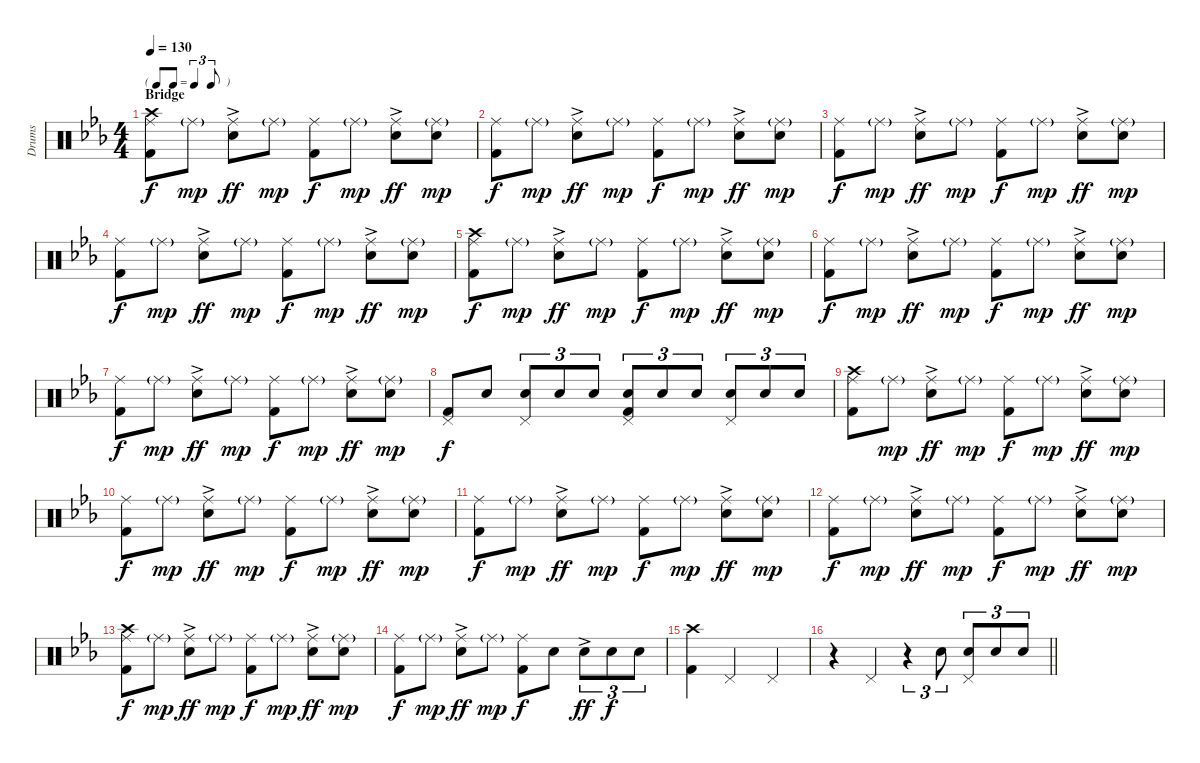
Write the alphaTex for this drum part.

\track ("Drums" "Drums") {instrument percussion}
\staff {score}
\articulation defaults
\ts (4 4)
\tf triplet8th
\section ("" "Bridge")
\tempo 130
\clef neutral
\ks eb
("Ride (middle)" "Kick (hit) 2" "Crash high (hit)").8{dy f} "Ride (middle)"{g}.8{dy mp} ("Ride (middle)" "Electric Snare (hit)"{ac}).8{dy ff} "Ride (middle)"{g}.8{dy mp} ("Ride (middle)" "Kick (hit) 2").8{dy f} "Ride (middle)"{g}.8{dy mp} ("Ride (middle)" "Electric Snare (hit)"{ac}).8{dy ff} ("Ride (middle)"{g} "Electric Snare (hit)").8{dy mp} |
("Ride (middle)" "Kick (hit) 2").8{dy f} "Ride (middle)"{g}.8{dy mp} ("Ride (middle)" "Electric Snare (hit)"{ac}).8{dy ff} "Ride (middle)"{g}.8{dy mp} ("Ride (middle)" "Kick (hit) 2").8{dy f} "Ride (middle)"{g}.8{dy mp} ("Ride (middle)" "Electric Snare (hit)"{ac}).8{dy ff} ("Ride (middle)"{g} "Electric Snare (hit)").8{dy mp} |
("Ride (middle)" "Kick (hit) 2").8{dy f} "Ride (middle)"{g}.8{dy mp} ("Ride (middle)" "Electric Snare (hit)"{ac}).8{dy ff} "Ride (middle)"{g}.8{dy mp} ("Ride (middle)" "Kick (hit) 2").8{dy f} "Ride (middle)"{g}.8{dy mp} ("Ride (middle)" "Electric Snare (hit)"{ac}).8{dy ff} ("Ride (middle)"{g} "Electric Snare (hit)").8{dy mp} |
("Ride (middle)" "Kick (hit) 2").8{dy f} "Ride (middle)"{g}.8{dy mp} ("Ride (middle)" "Electric Snare (hit)"{ac}).8{dy ff} "Ride (middle)"{g}.8{dy mp} ("Ride (middle)" "Kick (hit) 2").8{dy f} "Ride (middle)"{g}.8{dy mp} ("Ride (middle)" "Electric Snare (hit)"{ac}).8{dy ff} ("Ride (middle)"{g} "Electric Snare (hit)").8{dy mp} |
("Ride (middle)" "Kick (hit) 2" "Crash high (hit)").8{dy f} "Ride (middle)"{g}.8{dy mp} ("Ride (middle)" "Electric Snare (hit)"{ac}).8{dy ff} "Ride (middle)"{g}.8{dy mp} ("Ride (middle)" "Kick (hit) 2").8{dy f} "Ride (middle)"{g}.8{dy mp} ("Ride (middle)" "Electric Snare (hit)"{ac}).8{dy ff} ("Ride (middle)"{g} "Electric Snare (hit)").8{dy mp} |
("Ride (middle)" "Kick (hit) 2").8{dy f} "Ride (middle)"{g}.8{dy mp} ("Ride (middle)" "Electric Snare (hit)"{ac}).8{dy ff} "Ride (middle)"{g}.8{dy mp} ("Ride (middle)" "Kick (hit) 2").8{dy f} "Ride (middle)"{g}.8{dy mp} ("Ride (middle)" "Electric Snare (hit)"{ac}).8{dy ff} ("Ride (middle)"{g} "Electric Snare (hit)").8{dy mp} |
("Ride (middle)" "Kick (hit) 2").8{dy f} "Ride (middle)"{g}.8{dy mp} ("Ride (middle)" "Electric Snare (hit)"{ac}).8{dy ff} "Ride (middle)"{g}.8{dy mp} ("Ride (middle)" "Kick (hit) 2").8{dy f} "Ride (middle)"{g}.8{dy mp} ("Ride (middle)" "Electric Snare (hit)"{ac}).8{dy ff} ("Ride (middle)"{g} "Electric Snare (hit)").8{dy mp} |
("Pedal Hi-Hat (hit)" "Kick (hit) 2").8{dy f} "Electric Snare (hit)".8 ("Pedal Hi-Hat (hit)" "Electric Snare (hit)").8{tu (3 2)} "Electric Snare (hit)".8{tu (3 2)} "Electric Snare (hit)".8{tu (3 2)} ("Pedal Hi-Hat (hit)" "Electric Snare (hit)" "Kick (hit) 2").8{tu (3 2)} "Electric Snare (hit)".8{tu (3 2)} "Electric Snare (hit)".8{tu (3 2)} ("Pedal Hi-Hat (hit)" "Electric Snare (hit)").8{tu (3 2)} "Electric Snare (hit)".8{tu (3 2)} "Electric Snare (hit)".8{tu (3 2)} |
("Ride (middle)" "Kick (hit) 2" "Crash high (hit)").8 "Ride (middle)"{g}.8{dy mp} ("Ride (middle)" "Electric Snare (hit)"{ac}).8{dy ff} "Ride (middle)"{g}.8{dy mp} ("Ride (middle)" "Kick (hit) 2").8{dy f} "Ride (middle)"{g}.8{dy mp} ("Ride (middle)" "Electric Snare (hit)"{ac}).8{dy ff} ("Ride (middle)"{g} "Electric Snare (hit)").8{dy mp} |
("Ride (middle)" "Kick (hit) 2").8{dy f} "Ride (middle)"{g}.8{dy mp} ("Ride (middle)" "Electric Snare (hit)"{ac}).8{dy ff} "Ride (middle)"{g}.8{dy mp} ("Ride (middle)" "Kick (hit) 2").8{dy f} "Ride (middle)"{g}.8{dy mp} ("Ride (middle)" "Electric Snare (hit)"{ac}).8{dy ff} ("Ride (middle)"{g} "Electric Snare (hit)").8{dy mp} |
("Ride (middle)" "Kick (hit) 2").8{dy f} "Ride (middle)"{g}.8{dy mp} ("Ride (middle)" "Electric Snare (hit)"{ac}).8{dy ff} "Ride (middle)"{g}.8{dy mp} ("Ride (middle)" "Kick (hit) 2").8{dy f} "Ride (middle)"{g}.8{dy mp} ("Ride (middle)" "Electric Snare (hit)"{ac}).8{dy ff} ("Ride (middle)"{g} "Electric Snare (hit)").8{dy mp} |
("Ride (middle)" "Kick (hit) 2").8{dy f} "Ride (middle)"{g}.8{dy mp} ("Ride (middle)" "Electric Snare (hit)"{ac}).8{dy ff} "Ride (middle)"{g}.8{dy mp} ("Ride (middle)" "Kick (hit) 2").8{dy f} "Ride (middle)"{g}.8{dy mp} ("Ride (middle)" "Electric Snare (hit)"{ac}).8{dy ff} ("Ride (middle)"{g} "Electric Snare (hit)").8{dy mp} |
("Ride (middle)" "Kick (hit) 2" "Crash high (hit)").8{dy f} "Ride (middle)"{g}.8{dy mp} ("Ride (middle)" "Electric Snare (hit)"{ac}).8{dy ff} "Ride (middle)"{g}.8{dy mp} ("Ride (middle)" "Kick (hit) 2").8{dy f} "Ride (middle)"{g}.8{dy mp} ("Ride (middle)" "Electric Snare (hit)"{ac}).8{dy ff} ("Ride (middle)"{g} "Electric Snare (hit)").8{dy mp} |
("Ride (middle)" "Kick (hit) 2").8{dy f} "Ride (middle)"{g}.8{dy mp} ("Ride (middle)" "Electric Snare (hit)"{ac}).8{dy ff} "Ride (middle)"{g}.8{dy mp} ("Ride (middle)" "Kick (hit) 2").8{dy f} "Electric Snare (hit)".8 "Electric Snare (hit)"{ac}.8{tu (3 2) dy ff} "Electric Snare (hit)".8{tu (3 2) dy f} "Electric Snare (hit)".8{tu (3 2)} |
("Kick (hit) 2" "Crash high (hit)").4 "Pedal Hi-Hat (hit)".2 "Pedal Hi-Hat (hit)".4 |
\barLineRight lightlight
r.4 "Pedal Hi-Hat (hit)".4 r.4{tu (3 2)} "Electric Snare (hit)".8{tu (3 2)} ("Pedal Hi-Hat (hit)" "Electric Snare (hit)").8{tu (3 2)} "Electric Snare (hit)".8{tu (3 2)} "Electric Snare (hit)".8{tu (3 2)}
